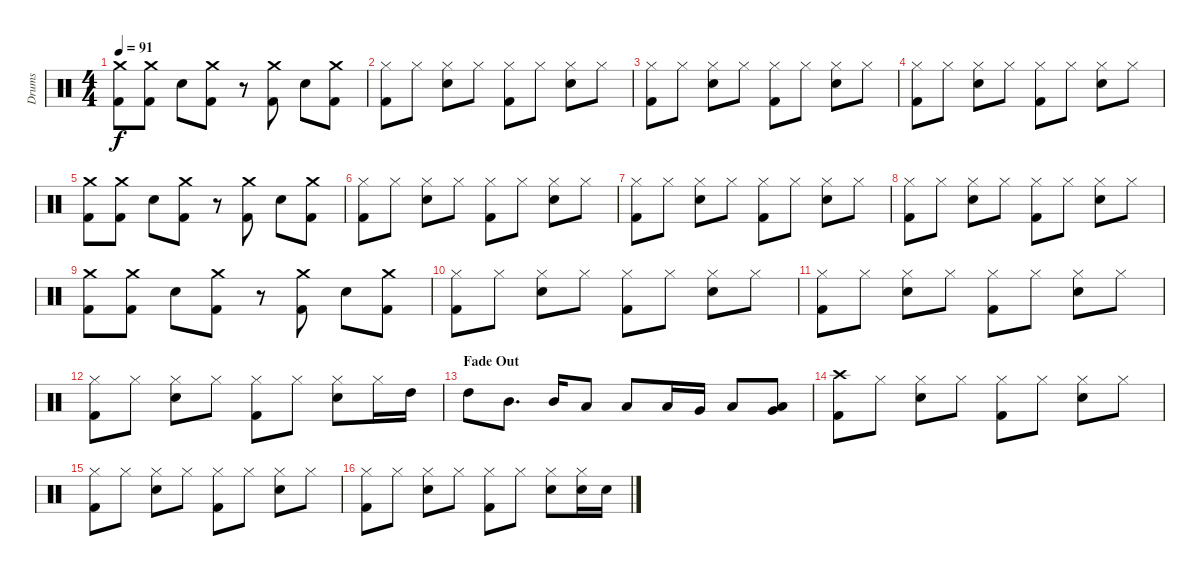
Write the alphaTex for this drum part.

\track ("Drums" "Drums") {instrument percussion}
\staff {score}
\articulation defaults
\ts (4 4)
\tempo 91
\clef neutral
\ks c
("Crash medium (hit)" "Kick (hit) 2").8{dy f} ("Crash medium (hit)" "Kick (hit) 2").8 "Electric Snare (hit)".8 ("Crash medium (hit)" "Kick (hit) 2").8 r.8 ("Crash medium (hit)" "Kick (hit) 2").8 "Electric Snare (hit)".8 ("Crash medium (hit)" "Kick (hit) 2").8 |
("Hi-Hat (closed)" "Kick (hit) 2").8 "Hi-Hat (closed)".8 ("Hi-Hat (closed)" "Electric Snare (hit)").8 "Hi-Hat (closed)".8 ("Hi-Hat (closed)" "Kick (hit) 2").8 "Hi-Hat (closed)".8 ("Hi-Hat (closed)" "Electric Snare (hit)").8 "Hi-Hat (closed)".8 |
("Hi-Hat (closed)" "Kick (hit) 2").8 "Hi-Hat (closed)".8 ("Hi-Hat (closed)" "Electric Snare (hit)").8 "Hi-Hat (closed)".8 ("Hi-Hat (closed)" "Kick (hit) 2").8 "Hi-Hat (closed)".8 ("Hi-Hat (closed)" "Electric Snare (hit)").8 "Hi-Hat (closed)".8 |
("Hi-Hat (closed)" "Kick (hit) 2").8 "Hi-Hat (closed)".8 ("Hi-Hat (closed)" "Electric Snare (hit)").8 "Hi-Hat (closed)".8 ("Hi-Hat (closed)" "Kick (hit) 2").8 "Hi-Hat (closed)".8 ("Hi-Hat (closed)" "Electric Snare (hit)").8 "Hi-Hat (closed)".8 |
("Crash medium (hit)" "Kick (hit) 2").8 ("Crash medium (hit)" "Kick (hit) 2").8 "Electric Snare (hit)".8 ("Crash medium (hit)" "Kick (hit) 2").8 r.8 ("Crash medium (hit)" "Kick (hit) 2").8 "Electric Snare (hit)".8 ("Crash medium (hit)" "Kick (hit) 2").8 |
("Hi-Hat (closed)" "Kick (hit) 2").8 "Hi-Hat (closed)".8 ("Hi-Hat (closed)" "Electric Snare (hit)").8 "Hi-Hat (closed)".8 ("Hi-Hat (closed)" "Kick (hit) 2").8 "Hi-Hat (closed)".8 ("Hi-Hat (closed)" "Electric Snare (hit)").8 "Hi-Hat (closed)".8 |
("Hi-Hat (closed)" "Kick (hit) 2").8 "Hi-Hat (closed)".8 ("Hi-Hat (closed)" "Electric Snare (hit)").8 "Hi-Hat (closed)".8 ("Hi-Hat (closed)" "Kick (hit) 2").8 "Hi-Hat (closed)".8 ("Hi-Hat (closed)" "Electric Snare (hit)").8 "Hi-Hat (closed)".8 |
("Hi-Hat (closed)" "Kick (hit) 2").8 "Hi-Hat (closed)".8 ("Hi-Hat (closed)" "Electric Snare (hit)").8 "Hi-Hat (closed)".8 ("Hi-Hat (closed)" "Kick (hit) 2").8 "Hi-Hat (closed)".8 ("Hi-Hat (closed)" "Electric Snare (hit)").8 "Hi-Hat (closed)".8 |
("Crash medium (hit)" "Kick (hit) 2").8 ("Crash medium (hit)" "Kick (hit) 2").8 "Electric Snare (hit)".8 ("Crash medium (hit)" "Kick (hit) 2").8 r.8 ("Crash medium (hit)" "Kick (hit) 2").8 "Electric Snare (hit)".8 ("Crash medium (hit)" "Kick (hit) 2").8 |
("Hi-Hat (closed)" "Kick (hit) 2").8 "Hi-Hat (closed)".8 ("Hi-Hat (closed)" "Electric Snare (hit)").8 "Hi-Hat (closed)".8 ("Hi-Hat (closed)" "Kick (hit) 2").8 "Hi-Hat (closed)".8 ("Hi-Hat (closed)" "Electric Snare (hit)").8 "Hi-Hat (closed)".8 |
("Hi-Hat (closed)" "Kick (hit) 2").8 "Hi-Hat (closed)".8 ("Hi-Hat (closed)" "Electric Snare (hit)").8 "Hi-Hat (closed)".8 ("Hi-Hat (closed)" "Kick (hit) 2").8 "Hi-Hat (closed)".8 ("Hi-Hat (closed)" "Electric Snare (hit)").8 "Hi-Hat (closed)".8 |
("Hi-Hat (closed)" "Kick (hit) 2").8 "Hi-Hat (closed)".8 ("Hi-Hat (closed)" "Electric Snare (hit)").8 "Hi-Hat (closed)".8 ("Hi-Hat (closed)" "Kick (hit) 2").8 "Hi-Hat (closed)".8 ("Hi-Hat (closed)" "Electric Snare (hit)").8 "Hi-Hat (closed)".16 "High Tom (hit)".16 |
\section ("" "Fade Out")
"High Tom (hit)".8 "Mid Tom (hit)".8{d} "Mid Tom (hit)".16 "Low Tom (hit)".8 "Low Tom (hit)".8 "Low Tom (hit)".16 "Very Low Tom (hit)".16 "Low Floor Tom (hit)".8 ("Very Low Tom (hit)" "Low Floor Tom (hit)").8 |
("Crash high (hit)" "Kick (hit) 2").8 "Hi-Hat (closed)".8 ("Hi-Hat (closed)" "Electric Snare (hit)").8 "Hi-Hat (closed)".8 ("Hi-Hat (closed)" "Kick (hit) 2").8 "Hi-Hat (closed)".8 ("Hi-Hat (closed)" "Electric Snare (hit)").8 "Hi-Hat (closed)".8 |
("Hi-Hat (closed)" "Kick (hit) 2").8 "Hi-Hat (closed)".8 ("Hi-Hat (closed)" "Electric Snare (hit)").8 "Hi-Hat (closed)".8 ("Hi-Hat (closed)" "Kick (hit) 2").8 "Hi-Hat (closed)".8 ("Hi-Hat (closed)" "Electric Snare (hit)").8 "Hi-Hat (closed)".8 |
("Hi-Hat (closed)" "Kick (hit) 2").8 "Hi-Hat (closed)".8 ("Hi-Hat (closed)" "Electric Snare (hit)").8 "Hi-Hat (closed)".8 ("Hi-Hat (closed)" "Kick (hit) 2").8 "Hi-Hat (closed)".8 ("Hi-Hat (closed)" "Electric Snare (hit)").8 ("Hi-Hat (closed)" "Electric Snare (hit)").16 "Electric Snare (hit)".16
